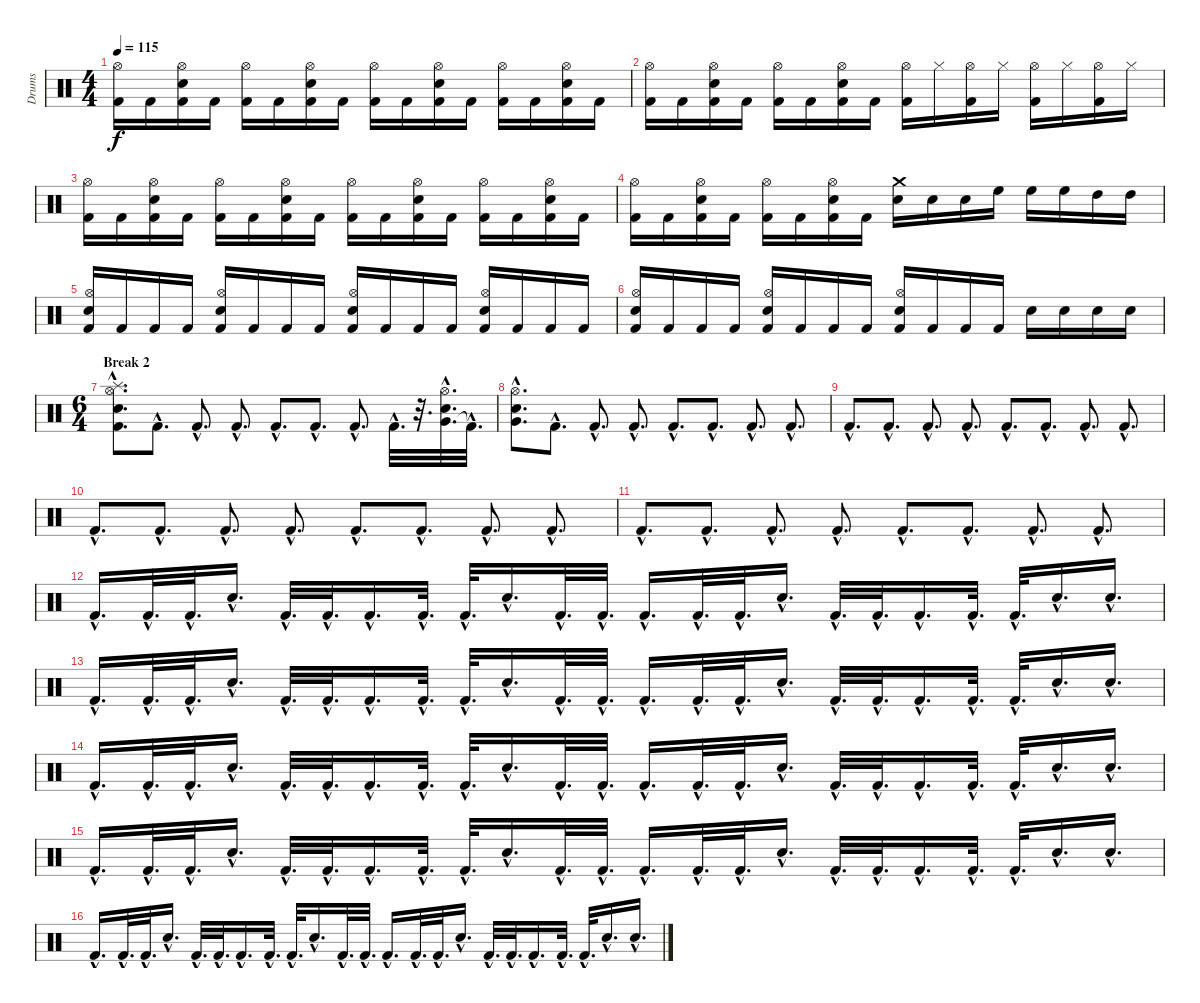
\track ("Drums" "Drums") {instrument percussion}
\staff {score}
\articulation defaults
\ts (4 4)
\tempo 115
\clef neutral
\ks c
("Kick (hit) 2" "Hi-Hat (open)").16{dy f} "Kick (hit) 2".16 ("Kick (hit) 2" "Electric Snare (hit)" "Hi-Hat (open)").16 "Kick (hit) 2".16 ("Kick (hit) 2" "Hi-Hat (open)").16 "Kick (hit) 2".16 ("Kick (hit) 2" "Electric Snare (hit)" "Hi-Hat (open)").16 "Kick (hit) 2".16 ("Kick (hit) 2" "Hi-Hat (open)").16 "Kick (hit) 2".16 ("Kick (hit) 2" "Electric Snare (hit)" "Hi-Hat (open)").16 "Kick (hit) 2".16 ("Kick (hit) 2" "Hi-Hat (open)").16 "Kick (hit) 2".16 ("Kick (hit) 2" "Electric Snare (hit)" "Hi-Hat (open)").16 "Kick (hit) 2".16 |
("Kick (hit) 2" "Hi-Hat (open)").16 "Kick (hit) 2".16 ("Kick (hit) 2" "Electric Snare (hit)" "Hi-Hat (open)").16 "Kick (hit) 2".16 ("Kick (hit) 2" "Hi-Hat (open)").16 "Kick (hit) 2".16 ("Kick (hit) 2" "Electric Snare (hit)" "Hi-Hat (open)").16 "Kick (hit) 2".16 ("Kick (hit) 2" "Hi-Hat (open)").16 "Hi-Hat (closed)".16 ("Kick (hit) 2" "Hi-Hat (open)").16 "Hi-Hat (closed)".16 ("Kick (hit) 2" "Hi-Hat (open)").16 "Hi-Hat (closed)".16 ("Kick (hit) 2" "Hi-Hat (open)").16 "Hi-Hat (closed)".16 |
("Kick (hit) 2" "Hi-Hat (open)").16 "Kick (hit) 2".16 ("Kick (hit) 2" "Electric Snare (hit)" "Hi-Hat (open)").16 "Kick (hit) 2".16 ("Kick (hit) 2" "Hi-Hat (open)").16 "Kick (hit) 2".16 ("Kick (hit) 2" "Electric Snare (hit)" "Hi-Hat (open)").16 "Kick (hit) 2".16 ("Kick (hit) 2" "Hi-Hat (open)").16 "Kick (hit) 2".16 ("Kick (hit) 2" "Electric Snare (hit)" "Hi-Hat (open)").16 "Kick (hit) 2".16 ("Kick (hit) 2" "Hi-Hat (open)").16 "Kick (hit) 2".16 ("Kick (hit) 2" "Electric Snare (hit)" "Hi-Hat (open)").16 "Kick (hit) 2".16 |
("Kick (hit) 2" "Hi-Hat (open)").16 "Kick (hit) 2".16 ("Kick (hit) 2" "Electric Snare (hit)" "Hi-Hat (open)").16 "Kick (hit) 2".16 ("Kick (hit) 2" "Hi-Hat (open)").16 "Kick (hit) 2".16 ("Kick (hit) 2" "Electric Snare (hit)" "Hi-Hat (open)").16 "Kick (hit) 2".16 ("Electric Snare (hit)" "Crash medium (hit)").16 "Electric Snare (hit)".16 "Electric Snare (hit)".16 "High Floor Tom (hit)".16 "High Floor Tom (hit)".16 "High Floor Tom (hit)".16 "High Tom (hit)".16 "High Tom (hit)".16 |
("Kick (hit) 2" "Electric Snare (hit)" "Hi-Hat (open)").16 "Kick (hit) 2".16 "Kick (hit) 2".16 "Kick (hit) 2".16 ("Kick (hit) 2" "Electric Snare (hit)" "Hi-Hat (open)").16 "Kick (hit) 2".16 "Kick (hit) 2".16 "Kick (hit) 2".16 ("Kick (hit) 2" "Electric Snare (hit)" "Hi-Hat (open)").16 "Kick (hit) 2".16 "Kick (hit) 2".16 "Kick (hit) 2".16 ("Kick (hit) 2" "Electric Snare (hit)" "Hi-Hat (open)").16 "Kick (hit) 2".16 "Kick (hit) 2".16 "Kick (hit) 2".16 |
("Kick (hit) 2" "Electric Snare (hit)" "Hi-Hat (open)").16 "Kick (hit) 2".16 "Kick (hit) 2".16 "Kick (hit) 2".16 ("Kick (hit) 2" "Electric Snare (hit)" "Hi-Hat (open)").16 "Kick (hit) 2".16 "Kick (hit) 2".16 "Kick (hit) 2".16 ("Kick (hit) 2" "Electric Snare (hit)" "Hi-Hat (open)").16 "Kick (hit) 2".16 "Kick (hit) 2".16 "Kick (hit) 2".16 "Electric Snare (hit)".16 "Electric Snare (hit)".16 "Electric Snare (hit)".16 "Electric Snare (hit)".16 |
\ts (6 4)
\section ("" "Break 2")
("Kick (hit) 2"{hac} "Electric Snare (hit)"{hac} "Hi-Hat (open)"{hac} "Splash (hit)"{hac}).8{d} "Kick (hit) 2"{hac}.8{d} "Kick (hit) 2"{hac}.8{d} "Kick (hit) 2"{hac}.8{d} "Kick (hit) 2"{hac}.8{d} "Kick (hit) 2"{hac}.8{d} "Kick (hit) 2"{hac}.8{d} "Kick (hit) 2"{hac}.32{d} r.32{d} ("Very Low Tom (hit)"{hac} "Electric Snare (hit)"{hac} "Hi-Hat (open)"{hac}).32{d} "Kick (hit) 2"{hac t}.32{d} |
("Very Low Tom (hit)"{hac} "Electric Snare (hit)"{hac} "Hi-Hat (open)"{hac}).8{d} "Kick (hit) 2"{hac}.8{d} "Kick (hit) 2"{hac}.8{d} "Kick (hit) 2"{hac}.8{d} "Kick (hit) 2"{hac}.8{d} "Kick (hit) 2"{hac}.8{d} "Kick (hit) 2"{hac}.8{d} "Kick (hit) 2"{hac}.8{d} |
"Kick (hit) 2"{hac}.8{d} "Kick (hit) 2"{hac}.8{d} "Kick (hit) 2"{hac}.8{d} "Kick (hit) 2"{hac}.8{d} "Kick (hit) 2"{hac}.8{d} "Kick (hit) 2"{hac}.8{d} "Kick (hit) 2"{hac}.8{d} "Kick (hit) 2"{hac}.8{d} |
"Kick (hit) 2"{hac}.8{d} "Kick (hit) 2"{hac}.8{d} "Kick (hit) 2"{hac}.8{d} "Kick (hit) 2"{hac}.8{d} "Kick (hit) 2"{hac}.8{d} "Kick (hit) 2"{hac}.8{d} "Kick (hit) 2"{hac}.8{d} "Kick (hit) 2"{hac}.8{d} |
"Kick (hit) 2"{hac}.8{d} "Kick (hit) 2"{hac}.8{d} "Kick (hit) 2"{hac}.8{d} "Kick (hit) 2"{hac}.8{d} "Kick (hit) 2"{hac}.8{d} "Kick (hit) 2"{hac}.8{d} "Kick (hit) 2"{hac}.8{d} "Kick (hit) 2"{hac}.8{d} |
"Kick (hit) 2"{hac}.16{d} "Kick (hit) 2"{hac}.32{d} "Kick (hit) 2"{hac}.32{d} "Electric Snare (hit)"{hac}.16{d} "Kick (hit) 2"{hac}.32{d} "Kick (hit) 2"{hac}.32{d} "Kick (hit) 2"{hac}.16{d} "Kick (hit) 2"{hac}.32{d} "Kick (hit) 2"{hac}.32{d} "Electric Snare (hit)"{hac}.16{d} "Kick (hit) 2"{hac}.32{d} "Kick (hit) 2"{hac}.32{d} "Kick (hit) 2"{hac}.16{d} "Kick (hit) 2"{hac}.32{d} "Kick (hit) 2"{hac}.32{d} "Electric Snare (hit)"{hac}.16{d} "Kick (hit) 2"{hac}.32{d} "Kick (hit) 2"{hac}.32{d} "Kick (hit) 2"{hac}.16{d} "Kick (hit) 2"{hac}.32{d} "Kick (hit) 2"{hac}.32{d} "Electric Snare (hit)"{hac}.16{d} "Electric Snare (hit)"{hac}.16{d} |
"Kick (hit) 2"{hac}.16{d} "Kick (hit) 2"{hac}.32{d} "Kick (hit) 2"{hac}.32{d} "Electric Snare (hit)"{hac}.16{d} "Kick (hit) 2"{hac}.32{d} "Kick (hit) 2"{hac}.32{d} "Kick (hit) 2"{hac}.16{d} "Kick (hit) 2"{hac}.32{d} "Kick (hit) 2"{hac}.32{d} "Electric Snare (hit)"{hac}.16{d} "Kick (hit) 2"{hac}.32{d} "Kick (hit) 2"{hac}.32{d} "Kick (hit) 2"{hac}.16{d} "Kick (hit) 2"{hac}.32{d} "Kick (hit) 2"{hac}.32{d} "Electric Snare (hit)"{hac}.16{d} "Kick (hit) 2"{hac}.32{d} "Kick (hit) 2"{hac}.32{d} "Kick (hit) 2"{hac}.16{d} "Kick (hit) 2"{hac}.32{d} "Kick (hit) 2"{hac}.32{d} "Electric Snare (hit)"{hac}.16{d} "Electric Snare (hit)"{hac}.16{d} |
"Kick (hit) 2"{hac}.16{d} "Kick (hit) 2"{hac}.32{d} "Kick (hit) 2"{hac}.32{d} "Electric Snare (hit)"{hac}.16{d} "Kick (hit) 2"{hac}.32{d} "Kick (hit) 2"{hac}.32{d} "Kick (hit) 2"{hac}.16{d} "Kick (hit) 2"{hac}.32{d} "Kick (hit) 2"{hac}.32{d} "Electric Snare (hit)"{hac}.16{d} "Kick (hit) 2"{hac}.32{d} "Kick (hit) 2"{hac}.32{d} "Kick (hit) 2"{hac}.16{d} "Kick (hit) 2"{hac}.32{d} "Kick (hit) 2"{hac}.32{d} "Electric Snare (hit)"{hac}.16{d} "Kick (hit) 2"{hac}.32{d} "Kick (hit) 2"{hac}.32{d} "Kick (hit) 2"{hac}.16{d} "Kick (hit) 2"{hac}.32{d} "Kick (hit) 2"{hac}.32{d} "Electric Snare (hit)"{hac}.16{d} "Electric Snare (hit)"{hac}.16{d} |
"Kick (hit) 2"{hac}.16{d} "Kick (hit) 2"{hac}.32{d} "Kick (hit) 2"{hac}.32{d} "Electric Snare (hit)"{hac}.16{d} "Kick (hit) 2"{hac}.32{d} "Kick (hit) 2"{hac}.32{d} "Kick (hit) 2"{hac}.16{d} "Kick (hit) 2"{hac}.32{d} "Kick (hit) 2"{hac}.32{d} "Electric Snare (hit)"{hac}.16{d} "Kick (hit) 2"{hac}.32{d} "Kick (hit) 2"{hac}.32{d} "Kick (hit) 2"{hac}.16{d} "Kick (hit) 2"{hac}.32{d} "Kick (hit) 2"{hac}.32{d} "Electric Snare (hit)"{hac}.16{d} "Kick (hit) 2"{hac}.32{d} "Kick (hit) 2"{hac}.32{d} "Kick (hit) 2"{hac}.16{d} "Kick (hit) 2"{hac}.32{d} "Kick (hit) 2"{hac}.32{d} "Electric Snare (hit)"{hac}.16{d} "Electric Snare (hit)"{hac}.16{d} |
"Kick (hit) 2"{hac}.16{d} "Kick (hit) 2"{hac}.32{d} "Kick (hit) 2"{hac}.32{d} "Electric Snare (hit)"{hac}.16{d} "Kick (hit) 2"{hac}.32{d} "Kick (hit) 2"{hac}.32{d} "Kick (hit) 2"{hac}.16{d} "Kick (hit) 2"{hac}.32{d} "Kick (hit) 2"{hac}.32{d} "Electric Snare (hit)"{hac}.16{d} "Kick (hit) 2"{hac}.32{d} "Kick (hit) 2"{hac}.32{d} "Kick (hit) 2"{hac}.16{d} "Kick (hit) 2"{hac}.32{d} "Kick (hit) 2"{hac}.32{d} "Electric Snare (hit)"{hac}.16{d} "Kick (hit) 2"{hac}.32{d} "Kick (hit) 2"{hac}.32{d} "Kick (hit) 2"{hac}.16{d} "Kick (hit) 2"{hac}.32{d} "Kick (hit) 2"{hac}.32{d} "Electric Snare (hit)"{hac}.16{d} "Electric Snare (hit)"{hac}.16{d}
